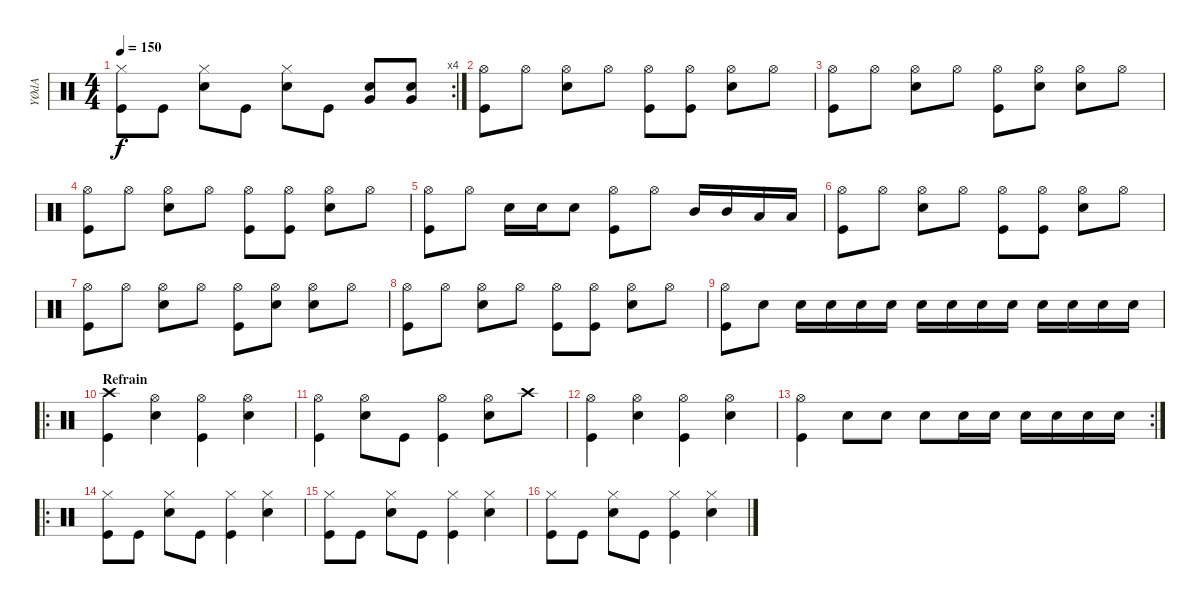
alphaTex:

\track ("YØdA" "YØdA") {instrument percussion}
\staff {score}
\articulation defaults
\rc 4
\ts (4 4)
\tempo 150
\clef neutral
\ks c
("Hi-Hat (closed)" "Kick (hit)").8{dy f} "Kick (hit)".8 ("Hi-Hat (closed)" "Electric Snare (hit)").8 "Kick (hit)".8 ("Hi-Hat (closed)" "Electric Snare (hit)").8 "Kick (hit)".8 ("Very Low Tom (hit)" "Electric Snare (hit)").8 ("Very Low Tom (hit)" "Electric Snare (hit)").8 |
("Hi-Hat (open)" "Kick (hit)").8 "Hi-Hat (open)".8 ("Hi-Hat (open)" "Electric Snare (hit)").8 "Hi-Hat (open)".8 ("Hi-Hat (open)" "Kick (hit)").8 ("Hi-Hat (open)" "Kick (hit)").8 ("Hi-Hat (open)" "Electric Snare (hit)").8 "Hi-Hat (open)".8 |
("Hi-Hat (open)" "Kick (hit)").8 "Hi-Hat (open)".8 ("Hi-Hat (open)" "Electric Snare (hit)").8 "Hi-Hat (open)".8 ("Hi-Hat (open)" "Kick (hit)").8 ("Hi-Hat (open)" "Electric Snare (hit)").8 ("Hi-Hat (open)" "Electric Snare (hit)").8 "Hi-Hat (open)".8 |
("Hi-Hat (open)" "Kick (hit)").8 "Hi-Hat (open)".8 ("Hi-Hat (open)" "Electric Snare (hit)").8 "Hi-Hat (open)".8 ("Hi-Hat (open)" "Kick (hit)").8 ("Hi-Hat (open)" "Kick (hit)").8 ("Hi-Hat (open)" "Electric Snare (hit)").8 "Hi-Hat (open)".8 |
("Hi-Hat (open)" "Kick (hit)").8 "Hi-Hat (open)".8 "Electric Snare (hit)".16 "Electric Snare (hit)".16 "Electric Snare (hit)".8 ("Hi-Hat (open)" "Kick (hit)").8 "Hi-Hat (open)".8 "Mid Tom (hit)".16 "Mid Tom (hit)".16 "Low Tom (hit)".16 "Low Tom (hit)".16 |
("Hi-Hat (open)" "Kick (hit)").8 "Hi-Hat (open)".8 ("Hi-Hat (open)" "Electric Snare (hit)").8 "Hi-Hat (open)".8 ("Hi-Hat (open)" "Kick (hit)").8 ("Hi-Hat (open)" "Kick (hit)").8 ("Hi-Hat (open)" "Electric Snare (hit)").8 "Hi-Hat (open)".8 |
("Hi-Hat (open)" "Kick (hit)").8 "Hi-Hat (open)".8 ("Hi-Hat (open)" "Electric Snare (hit)").8 "Hi-Hat (open)".8 ("Hi-Hat (open)" "Kick (hit)").8 ("Hi-Hat (open)" "Electric Snare (hit)").8 ("Hi-Hat (open)" "Electric Snare (hit)").8 "Hi-Hat (open)".8 |
("Hi-Hat (open)" "Kick (hit)").8 "Hi-Hat (open)".8 ("Hi-Hat (open)" "Electric Snare (hit)").8 "Hi-Hat (open)".8 ("Hi-Hat (open)" "Kick (hit)").8 ("Hi-Hat (open)" "Kick (hit)").8 ("Hi-Hat (open)" "Electric Snare (hit)").8 "Hi-Hat (open)".8 |
("Hi-Hat (open)" "Kick (hit)").8 "Electric Snare (hit)".8 "Electric Snare (hit)".16 "Electric Snare (hit)".16 "Electric Snare (hit)".16 "Electric Snare (hit)".16 "Electric Snare (hit)".16 "Electric Snare (hit)".16 "Electric Snare (hit)".16 "Electric Snare (hit)".16 "Electric Snare (hit)".16 "Electric Snare (hit)".16 "Electric Snare (hit)".16 "Electric Snare (hit)".16 |
\ro
\section ("" "Refrain")
("Crash high (hit)" "Kick (hit)").4 ("Hi-Hat (open)" "Electric Snare (hit)").4 ("Hi-Hat (open)" "Kick (hit)").4 ("Hi-Hat (open)" "Electric Snare (hit)").4 |
("Hi-Hat (open)" "Kick (hit)").4 ("Hi-Hat (open)" "Electric Snare (hit)").8 "Kick (hit)".8 ("Hi-Hat (open)" "Kick (hit)").4 ("Hi-Hat (open)" "Electric Snare (hit)").8 "Crash high (hit)".8 |
("Hi-Hat (open)" "Kick (hit)").4 ("Hi-Hat (open)" "Electric Snare (hit)").4 ("Hi-Hat (open)" "Kick (hit)").4 ("Hi-Hat (open)" "Electric Snare (hit)").4 |
\rc 2
("Hi-Hat (open)" "Kick (hit)").4 "Electric Snare (hit)".8 "Electric Snare (hit)".8 "Electric Snare (hit)".8 "Electric Snare (hit)".16 "Electric Snare (hit)".16 "Electric Snare (hit)".16 "Electric Snare (hit)".16 "Electric Snare (hit)".16 "Electric Snare (hit)".16 |
\ro
("Hi-Hat (closed)" "Kick (hit)").8 "Kick (hit)".8 ("Hi-Hat (closed)" "Electric Snare (hit)").8 "Kick (hit)".8 ("Hi-Hat (closed)" "Kick (hit)").4 ("Hi-Hat (closed)" "Electric Snare (hit)").4 |
("Hi-Hat (closed)" "Kick (hit)").8 "Kick (hit)".8 ("Hi-Hat (closed)" "Electric Snare (hit)").8 "Kick (hit)".8 ("Hi-Hat (closed)" "Kick (hit)").4 ("Hi-Hat (closed)" "Electric Snare (hit)").4 |
("Hi-Hat (closed)" "Kick (hit)").8 "Kick (hit)".8 ("Hi-Hat (closed)" "Electric Snare (hit)").8 "Kick (hit)".8 ("Hi-Hat (closed)" "Kick (hit)").4 ("Hi-Hat (closed)" "Electric Snare (hit)").4
